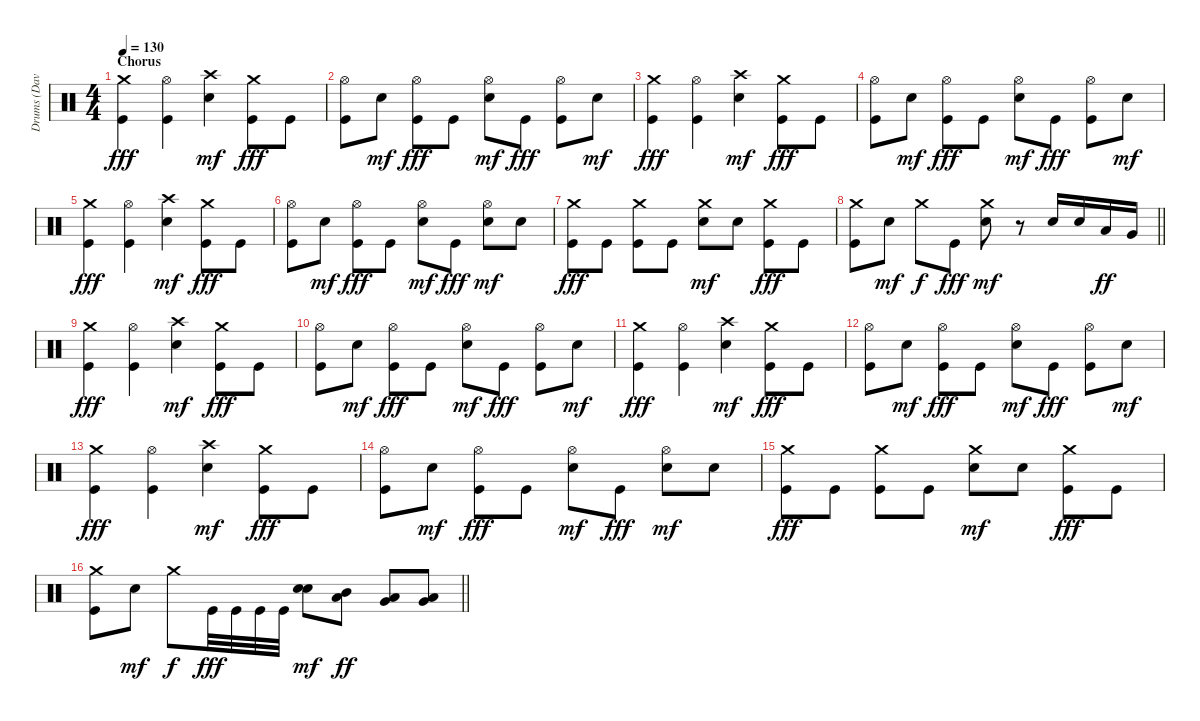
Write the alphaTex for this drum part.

\track ("Drums (Dave Chavarri)" "Drums (Dav") {instrument percussion}
\staff {score}
\articulation defaults
\ts (4 4)
\section ("" "Chorus")
\tempo 130
\clef neutral
\ks c
("Crash medium (hit)" "Kick (hit)").4{dy fff} ("Hi-Hat (open)" "Kick (hit)").4 ("Crash high (hit)" "Electric Snare (hit)").4{dy mf} ("Crash medium (hit)" "Kick (hit)").8{dy fff} "Kick (hit)".8 |
("Hi-Hat (open)" "Kick (hit)").8 "Electric Snare (hit)".8{dy mf} ("Hi-Hat (open)" "Kick (hit)").8{dy fff} "Kick (hit)".8 ("Hi-Hat (open)" "Electric Snare (hit)").8{dy mf} "Kick (hit)".8{dy fff} ("Hi-Hat (open)" "Kick (hit)").8 "Electric Snare (hit)".8{dy mf} |
("Crash medium (hit)" "Kick (hit)").4{dy fff} ("Hi-Hat (open)" "Kick (hit)").4 ("Crash high (hit)" "Electric Snare (hit)").4{dy mf} ("Crash medium (hit)" "Kick (hit)").8{dy fff} "Kick (hit)".8 |
("Hi-Hat (open)" "Kick (hit)").8 "Electric Snare (hit)".8{dy mf} ("Hi-Hat (open)" "Kick (hit)").8{dy fff} "Kick (hit)".8 ("Hi-Hat (open)" "Electric Snare (hit)").8{dy mf} "Kick (hit)".8{dy fff} ("Hi-Hat (open)" "Kick (hit)").8 "Electric Snare (hit)".8{dy mf} |
("Crash medium (hit)" "Kick (hit)").4{dy fff} ("Hi-Hat (open)" "Kick (hit)").4 ("Crash high (hit)" "Electric Snare (hit)").4{dy mf} ("Crash medium (hit)" "Kick (hit)").8{dy fff} "Kick (hit)".8 |
("Hi-Hat (open)" "Kick (hit)").8 "Electric Snare (hit)".8{dy mf} ("Hi-Hat (open)" "Kick (hit)").8{dy fff} "Kick (hit)".8 ("Hi-Hat (open)" "Electric Snare (hit)").8{dy mf} "Kick (hit)".8{dy fff} ("Hi-Hat (open)" "Electric Snare (hit)").8{dy mf} "Electric Snare (hit)".8 |
("Crash medium (hit)" "Kick (hit)").8{dy fff} "Kick (hit)".8 ("Crash medium (hit)" "Kick (hit)").8 "Kick (hit)".8 ("Crash medium (hit)" "Electric Snare (hit)").8{dy mf} "Electric Snare (hit)".8 ("Crash medium (hit)" "Kick (hit)").8{dy fff} "Kick (hit)".8 |
\barLineRight lightlight
("Crash medium (hit)" "Kick (hit)").8 "Electric Snare (hit)".8{dy mf} "Crash medium (hit)".8{dy f} "Kick (hit)".8{dy fff} ("Crash medium (hit)" "Electric Snare (hit)").8{dy mf} r.8 "Electric Snare (hit)".16 "Electric Snare (hit)".16 "Low Tom (hit)".16{dy ff} "Very Low Tom (hit)".16 |
("Crash medium (hit)" "Kick (hit)").4{dy fff} ("Hi-Hat (open)" "Kick (hit)").4 ("Crash high (hit)" "Electric Snare (hit)").4{dy mf} ("Crash medium (hit)" "Kick (hit)").8{dy fff} "Kick (hit)".8 |
("Hi-Hat (open)" "Kick (hit)").8 "Electric Snare (hit)".8{dy mf} ("Hi-Hat (open)" "Kick (hit)").8{dy fff} "Kick (hit)".8 ("Hi-Hat (open)" "Electric Snare (hit)").8{dy mf} "Kick (hit)".8{dy fff} ("Hi-Hat (open)" "Kick (hit)").8 "Electric Snare (hit)".8{dy mf} |
("Crash medium (hit)" "Kick (hit)").4{dy fff} ("Hi-Hat (open)" "Kick (hit)").4 ("Crash high (hit)" "Electric Snare (hit)").4{dy mf} ("Crash medium (hit)" "Kick (hit)").8{dy fff} "Kick (hit)".8 |
("Hi-Hat (open)" "Kick (hit)").8 "Electric Snare (hit)".8{dy mf} ("Hi-Hat (open)" "Kick (hit)").8{dy fff} "Kick (hit)".8 ("Hi-Hat (open)" "Electric Snare (hit)").8{dy mf} "Kick (hit)".8{dy fff} ("Hi-Hat (open)" "Kick (hit)").8 "Electric Snare (hit)".8{dy mf} |
("Crash medium (hit)" "Kick (hit)").4{dy fff} ("Hi-Hat (open)" "Kick (hit)").4 ("Crash high (hit)" "Electric Snare (hit)").4{dy mf} ("Crash medium (hit)" "Kick (hit)").8{dy fff} "Kick (hit)".8 |
("Hi-Hat (open)" "Kick (hit)").8 "Electric Snare (hit)".8{dy mf} ("Hi-Hat (open)" "Kick (hit)").8{dy fff} "Kick (hit)".8 ("Hi-Hat (open)" "Electric Snare (hit)").8{dy mf} "Kick (hit)".8{dy fff} ("Hi-Hat (open)" "Electric Snare (hit)").8{dy mf} "Electric Snare (hit)".8 |
("Crash medium (hit)" "Kick (hit)").8{dy fff} "Kick (hit)".8 ("Crash medium (hit)" "Kick (hit)").8 "Kick (hit)".8 ("Crash medium (hit)" "Electric Snare (hit)").8{dy mf} "Electric Snare (hit)".8 ("Crash medium (hit)" "Kick (hit)").8{dy fff} "Kick (hit)".8 |
\barLineRight lightlight
("Crash medium (hit)" "Kick (hit)").8 "Electric Snare (hit)".8{dy mf} "Crash medium (hit)".8{dy f} "Kick (hit)".32{dy fff} "Kick (hit)".32 "Kick (hit)".32 "Kick (hit)".32 ("Electric Snare (hit)" "Electric Snare (hit)").8{bd 120 dy mf} ("Mid Tom (hit)" "Low Tom (hit)").8{dy ff} ("Low Tom (hit)" "Very Low Tom (hit)").8 ("Very Low Tom (hit)" "Low Floor Tom (hit)").8
